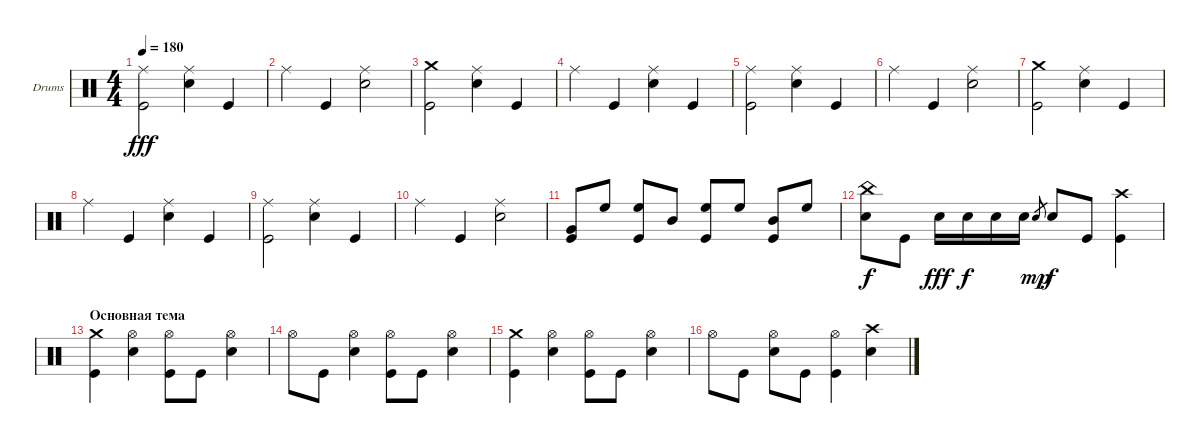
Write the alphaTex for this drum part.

\defaultSystemsLayout 4
\bracketExtendMode groupsimilarinstruments
\firstSystemTrackNameOrientation horizontal
\otherSystemsTrackNameOrientation horizontal
\track ("Барабаны" "Drums") {instrument percussion}
\staff {score}
\articulation defaults
\ts (4 4)
\tempo 180
\clef neutral
\ks c
("Ride (middle)" "Kick (hit)").2{dy fff} ("Ride (middle)" "Snare (hit) 2").4 "Kick (hit)".4 |
"Ride (middle)".4 "Kick (hit)".4 ("Ride (middle)" "Snare (hit) 2").2 |
("Crash medium (hit)" "Kick (hit)").2 ("Ride (middle)" "Snare (hit) 2").4 "Kick (hit)".4 |
"Ride (middle)".4 "Kick (hit)".4 ("Ride (middle)" "Snare (hit) 2").4 "Kick (hit)".4 |
("Ride (middle)" "Kick (hit)").2 ("Ride (middle)" "Snare (hit) 2").4 "Kick (hit)".4 |
"Ride (middle)".4 "Kick (hit)".4 ("Ride (middle)" "Snare (hit) 2").2 |
("Crash medium (hit)" "Kick (hit)").2 ("Ride (middle)" "Snare (hit) 2").4 "Kick (hit)".4 |
"Ride (middle)".4 "Kick (hit)".4 ("Ride (middle)" "Snare (hit) 2").4 "Kick (hit)".4 |
("Ride (middle)" "Kick (hit)").2 ("Ride (middle)" "Snare (hit) 2").4 "Kick (hit)".4 |
"Ride (middle)".4 "Kick (hit)".4 ("Ride (middle)" "Snare (hit) 2").2 |
("Very Low Tom (hit)" "Kick (hit)").8 "High Floor Tom (hit)".8 ("High Floor Tom (hit)" "Kick (hit)").8 "Mid Tom (hit)".8 ("High Floor Tom (hit)" "Kick (hit)").8 "High Floor Tom (hit)".8 ("Mid Tom (hit)" "Kick (hit)").8 "High Floor Tom (hit)".8 |
("China (hit)" "Snare (hit) 2").8{dy f} "Kick (hit)".8 "Snare (hit) 2".16{dy fff} "Snare (hit) 2".16{dy f} "Snare (hit) 2".16 "Snare (hit) 2".16 "Snare (hit) 2".8{gr dy mp} "Snare (hit) 2".8{dy f} "Kick (hit)".8 ("Crash high (hit)" "Kick (hit)").4 |
\section ("" "Основная тема")
("Crash medium (hit)" "Kick (hit)").4 ("Hi-Hat (open)" "Snare (hit) 2").4 ("Hi-Hat (open)" "Kick (hit)").8 "Kick (hit)".8 ("Hi-Hat (open)" "Snare (hit) 2").4 |
"Hi-Hat (open)".8 "Kick (hit)".8 ("Hi-Hat (open)" "Snare (hit) 2").4 ("Hi-Hat (open)" "Kick (hit)").8 "Kick (hit)".8 ("Hi-Hat (open)" "Snare (hit) 2").4 |
("Crash medium (hit)" "Kick (hit)").4 ("Hi-Hat (open)" "Snare (hit) 2").4 ("Hi-Hat (open)" "Kick (hit)").8 "Kick (hit)".8 ("Hi-Hat (open)" "Snare (hit) 2").4 |
"Hi-Hat (open)".8 "Kick (hit)".8 ("Hi-Hat (open)" "Snare (hit) 2").8 "Kick (hit)".8 ("Hi-Hat (open)" "Kick (hit)").4 ("Crash high (hit)" "Snare (hit) 2").4
